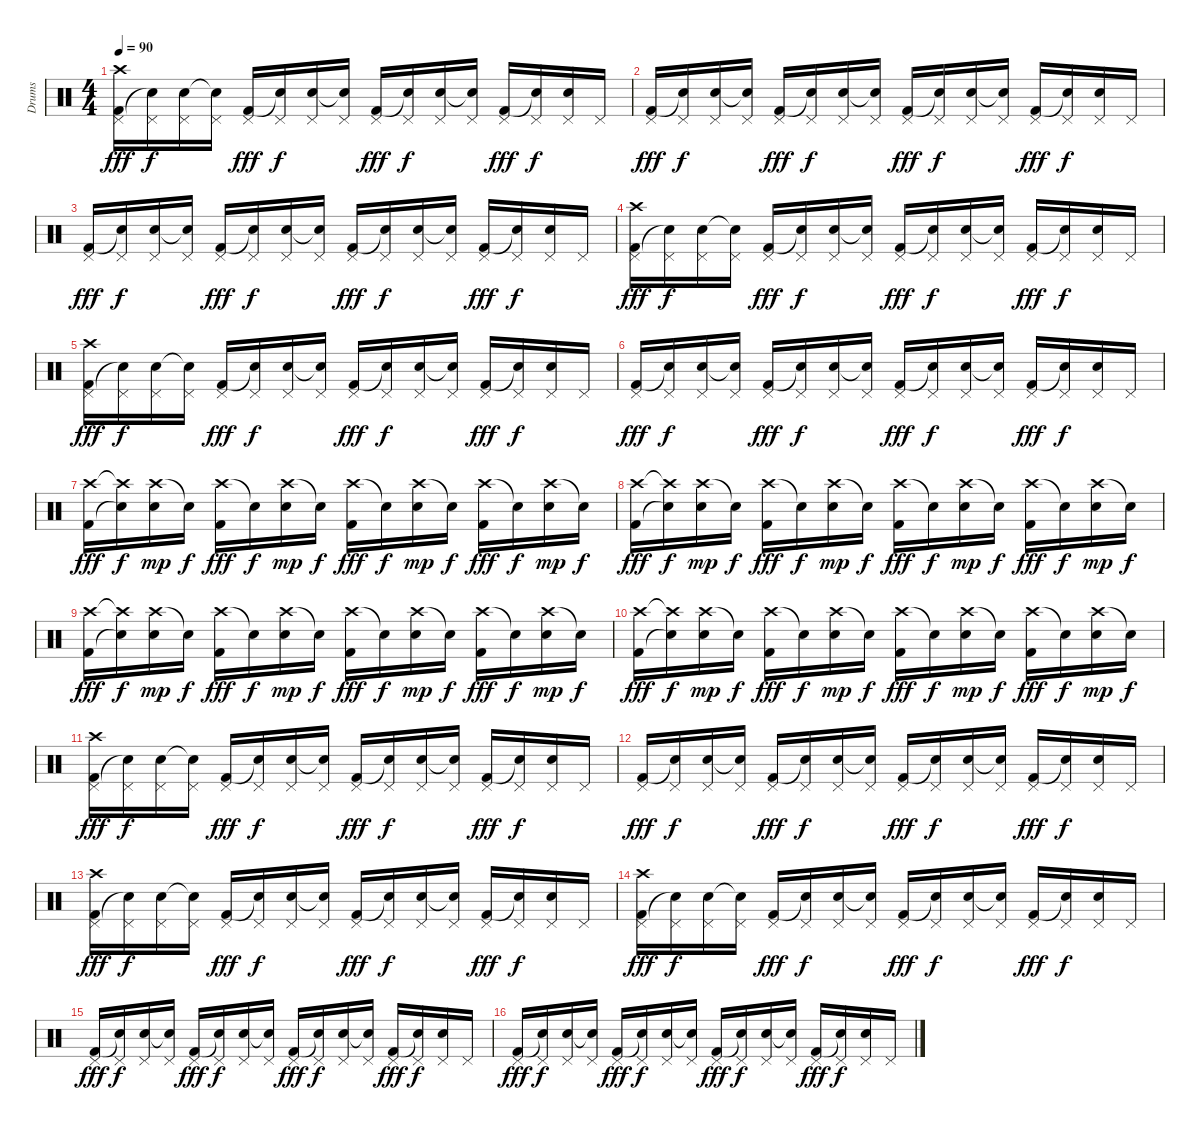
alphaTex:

\track ("Drums" "Drums") {instrument percussion}
\staff {score}
\articulation defaults
\ts (4 4)
\tempo 90
\clef neutral
\ks c
("Crash high (hit)" "Pedal Hi-Hat (hit)" "Kick (hit) 2").16{dy fff} ("Pedal Hi-Hat (hit)" "Snare (hit)"{t}).16{dy f} ("Pedal Hi-Hat (hit)" "Electric Snare (hit)").16 ("Pedal Hi-Hat (hit)" "Snare (hit)"{t}).16 ("Pedal Hi-Hat (hit)" "Kick (hit) 2").16{dy fff} ("Pedal Hi-Hat (hit)" "Snare (hit)"{t}).16{dy f} ("Pedal Hi-Hat (hit)" "Electric Snare (hit)").16 ("Pedal Hi-Hat (hit)" "Snare (hit)"{t}).16 ("Pedal Hi-Hat (hit)" "Kick (hit) 2").16{dy fff} ("Pedal Hi-Hat (hit)" "Snare (hit)"{t}).16{dy f} ("Pedal Hi-Hat (hit)" "Electric Snare (hit)").16 ("Pedal Hi-Hat (hit)" "Snare (hit)"{t}).16 ("Pedal Hi-Hat (hit)" "Kick (hit) 2").16{dy fff} ("Pedal Hi-Hat (hit)" "Snare (hit)"{t}).16{dy f} ("Pedal Hi-Hat (hit)" "Electric Snare (hit)").16 "Pedal Hi-Hat (hit)".16 |
("Pedal Hi-Hat (hit)" "Kick (hit) 2").16{dy fff} ("Pedal Hi-Hat (hit)" "Snare (hit)"{t}).16{dy f} ("Pedal Hi-Hat (hit)" "Electric Snare (hit)").16 ("Pedal Hi-Hat (hit)" "Snare (hit)"{t}).16 ("Pedal Hi-Hat (hit)" "Kick (hit) 2").16{dy fff} ("Pedal Hi-Hat (hit)" "Snare (hit)"{t}).16{dy f} ("Pedal Hi-Hat (hit)" "Electric Snare (hit)").16 ("Pedal Hi-Hat (hit)" "Snare (hit)"{t}).16 ("Pedal Hi-Hat (hit)" "Kick (hit) 2").16{dy fff} ("Pedal Hi-Hat (hit)" "Snare (hit)"{t}).16{dy f} ("Pedal Hi-Hat (hit)" "Electric Snare (hit)").16 ("Pedal Hi-Hat (hit)" "Snare (hit)"{t}).16 ("Pedal Hi-Hat (hit)" "Kick (hit) 2").16{dy fff} ("Pedal Hi-Hat (hit)" "Snare (hit)"{t}).16{dy f} ("Pedal Hi-Hat (hit)" "Electric Snare (hit)").16 "Pedal Hi-Hat (hit)".16 |
("Pedal Hi-Hat (hit)" "Kick (hit) 2").16{dy fff} ("Pedal Hi-Hat (hit)" "Snare (hit)"{t}).16{dy f} ("Pedal Hi-Hat (hit)" "Electric Snare (hit)").16 ("Pedal Hi-Hat (hit)" "Snare (hit)"{t}).16 ("Pedal Hi-Hat (hit)" "Kick (hit) 2").16{dy fff} ("Pedal Hi-Hat (hit)" "Snare (hit)"{t}).16{dy f} ("Pedal Hi-Hat (hit)" "Electric Snare (hit)").16 ("Pedal Hi-Hat (hit)" "Snare (hit)"{t}).16 ("Pedal Hi-Hat (hit)" "Kick (hit) 2").16{dy fff} ("Pedal Hi-Hat (hit)" "Snare (hit)"{t}).16{dy f} ("Pedal Hi-Hat (hit)" "Electric Snare (hit)").16 ("Pedal Hi-Hat (hit)" "Snare (hit)"{t}).16 ("Pedal Hi-Hat (hit)" "Kick (hit) 2").16{dy fff} ("Pedal Hi-Hat (hit)" "Snare (hit)"{t}).16{dy f} ("Pedal Hi-Hat (hit)" "Electric Snare (hit)").16 "Pedal Hi-Hat (hit)".16 |
("Crash high (hit)" "Pedal Hi-Hat (hit)" "Kick (hit) 2").16{dy fff} ("Pedal Hi-Hat (hit)" "Snare (hit)"{t}).16{dy f} ("Pedal Hi-Hat (hit)" "Electric Snare (hit)").16 ("Pedal Hi-Hat (hit)" "Snare (hit)"{t}).16 ("Pedal Hi-Hat (hit)" "Kick (hit) 2").16{dy fff} ("Pedal Hi-Hat (hit)" "Snare (hit)"{t}).16{dy f} ("Pedal Hi-Hat (hit)" "Electric Snare (hit)").16 ("Pedal Hi-Hat (hit)" "Snare (hit)"{t}).16 ("Pedal Hi-Hat (hit)" "Kick (hit) 2").16{dy fff} ("Pedal Hi-Hat (hit)" "Snare (hit)"{t}).16{dy f} ("Pedal Hi-Hat (hit)" "Electric Snare (hit)").16 ("Pedal Hi-Hat (hit)" "Snare (hit)"{t}).16 ("Pedal Hi-Hat (hit)" "Kick (hit) 2").16{dy fff} ("Pedal Hi-Hat (hit)" "Snare (hit)"{t}).16{dy f} ("Pedal Hi-Hat (hit)" "Electric Snare (hit)").16 "Pedal Hi-Hat (hit)".16 |
("Crash high (hit)" "Pedal Hi-Hat (hit)" "Kick (hit) 2").16{dy fff} ("Pedal Hi-Hat (hit)" "Snare (hit)"{t}).16{dy f} ("Pedal Hi-Hat (hit)" "Electric Snare (hit)").16 ("Pedal Hi-Hat (hit)" "Snare (hit)"{t}).16 ("Pedal Hi-Hat (hit)" "Kick (hit) 2").16{dy fff} ("Pedal Hi-Hat (hit)" "Snare (hit)"{t}).16{dy f} ("Pedal Hi-Hat (hit)" "Electric Snare (hit)").16 ("Pedal Hi-Hat (hit)" "Snare (hit)"{t}).16 ("Pedal Hi-Hat (hit)" "Kick (hit) 2").16{dy fff} ("Pedal Hi-Hat (hit)" "Snare (hit)"{t}).16{dy f} ("Pedal Hi-Hat (hit)" "Electric Snare (hit)").16 ("Pedal Hi-Hat (hit)" "Snare (hit)"{t}).16 ("Pedal Hi-Hat (hit)" "Kick (hit) 2").16{dy fff} ("Pedal Hi-Hat (hit)" "Snare (hit)"{t}).16{dy f} ("Pedal Hi-Hat (hit)" "Electric Snare (hit)").16 "Pedal Hi-Hat (hit)".16 |
("Pedal Hi-Hat (hit)" "Kick (hit) 2").16{dy fff} ("Pedal Hi-Hat (hit)" "Snare (hit)"{t}).16{dy f} ("Pedal Hi-Hat (hit)" "Electric Snare (hit)").16 ("Pedal Hi-Hat (hit)" "Snare (hit)"{t}).16 ("Pedal Hi-Hat (hit)" "Kick (hit) 2").16{dy fff} ("Pedal Hi-Hat (hit)" "Snare (hit)"{t}).16{dy f} ("Pedal Hi-Hat (hit)" "Electric Snare (hit)").16 ("Pedal Hi-Hat (hit)" "Snare (hit)"{t}).16 ("Pedal Hi-Hat (hit)" "Kick (hit) 2").16{dy fff} ("Pedal Hi-Hat (hit)" "Snare (hit)"{t}).16{dy f} ("Pedal Hi-Hat (hit)" "Electric Snare (hit)").16 ("Pedal Hi-Hat (hit)" "Snare (hit)"{t}).16 ("Pedal Hi-Hat (hit)" "Kick (hit) 2").16{dy fff} ("Pedal Hi-Hat (hit)" "Snare (hit)"{t}).16{dy f} ("Pedal Hi-Hat (hit)" "Electric Snare (hit)").16 "Pedal Hi-Hat (hit)".16 |
("Crash high (hit)" "Kick (hit) 2").16{dy fff} ("Crash high (hit)"{t} "Snare (hit)"{t}).16{dy f} ("Crash high (hit)" "Electric Snare (hit)").16{dy mp} "Snare (hit)"{t}.16{dy f} ("Crash high (hit)" "Kick (hit) 2").16{dy fff} "Snare (hit)"{t}.16{dy f} ("Crash high (hit)" "Electric Snare (hit)").16{dy mp} "Snare (hit)"{t}.16{dy f} ("Crash high (hit)" "Kick (hit) 2").16{dy fff} "Snare (hit)"{t}.16{dy f} ("Crash high (hit)" "Electric Snare (hit)").16{dy mp} "Snare (hit)"{t}.16{dy f} ("Crash high (hit)" "Kick (hit) 2").16{dy fff} "Snare (hit)"{t}.16{dy f} ("Crash high (hit)" "Electric Snare (hit)").16{dy mp} "Snare (hit)"{t}.16{dy f} |
("Crash high (hit)" "Kick (hit) 2").16{dy fff} ("Crash high (hit)"{t} "Snare (hit)"{t}).16{dy f} ("Crash high (hit)" "Electric Snare (hit)").16{dy mp} "Snare (hit)"{t}.16{dy f} ("Crash high (hit)" "Kick (hit) 2").16{dy fff} "Snare (hit)"{t}.16{dy f} ("Crash high (hit)" "Electric Snare (hit)").16{dy mp} "Snare (hit)"{t}.16{dy f} ("Crash high (hit)" "Kick (hit) 2").16{dy fff} "Snare (hit)"{t}.16{dy f} ("Crash high (hit)" "Electric Snare (hit)").16{dy mp} "Snare (hit)"{t}.16{dy f} ("Crash high (hit)" "Kick (hit) 2").16{dy fff} "Snare (hit)"{t}.16{dy f} ("Crash high (hit)" "Electric Snare (hit)").16{dy mp} "Snare (hit)"{t}.16{dy f} |
("Crash high (hit)" "Kick (hit) 2").16{dy fff} ("Crash high (hit)"{t} "Snare (hit)"{t}).16{dy f} ("Crash high (hit)" "Electric Snare (hit)").16{dy mp} "Snare (hit)"{t}.16{dy f} ("Crash high (hit)" "Kick (hit) 2").16{dy fff} "Snare (hit)"{t}.16{dy f} ("Crash high (hit)" "Electric Snare (hit)").16{dy mp} "Snare (hit)"{t}.16{dy f} ("Crash high (hit)" "Kick (hit) 2").16{dy fff} "Snare (hit)"{t}.16{dy f} ("Crash high (hit)" "Electric Snare (hit)").16{dy mp} "Snare (hit)"{t}.16{dy f} ("Crash high (hit)" "Kick (hit) 2").16{dy fff} "Snare (hit)"{t}.16{dy f} ("Crash high (hit)" "Electric Snare (hit)").16{dy mp} "Snare (hit)"{t}.16{dy f} |
("Crash high (hit)" "Kick (hit) 2").16{dy fff} ("Crash high (hit)"{t} "Snare (hit)"{t}).16{dy f} ("Crash high (hit)" "Electric Snare (hit)").16{dy mp} "Snare (hit)"{t}.16{dy f} ("Crash high (hit)" "Kick (hit) 2").16{dy fff} "Snare (hit)"{t}.16{dy f} ("Crash high (hit)" "Electric Snare (hit)").16{dy mp} "Snare (hit)"{t}.16{dy f} ("Crash high (hit)" "Kick (hit) 2").16{dy fff} "Snare (hit)"{t}.16{dy f} ("Crash high (hit)" "Electric Snare (hit)").16{dy mp} "Snare (hit)"{t}.16{dy f} ("Crash high (hit)" "Kick (hit) 2").16{dy fff} "Snare (hit)"{t}.16{dy f} ("Crash high (hit)" "Electric Snare (hit)").16{dy mp} "Snare (hit)"{t}.16{dy f} |
("Crash high (hit)" "Pedal Hi-Hat (hit)" "Kick (hit) 2").16{dy fff} ("Pedal Hi-Hat (hit)" "Snare (hit)"{t}).16{dy f} ("Pedal Hi-Hat (hit)" "Electric Snare (hit)").16 ("Pedal Hi-Hat (hit)" "Snare (hit)"{t}).16 ("Pedal Hi-Hat (hit)" "Kick (hit) 2").16{dy fff} ("Pedal Hi-Hat (hit)" "Snare (hit)"{t}).16{dy f} ("Pedal Hi-Hat (hit)" "Electric Snare (hit)").16 ("Pedal Hi-Hat (hit)" "Snare (hit)"{t}).16 ("Pedal Hi-Hat (hit)" "Kick (hit) 2").16{dy fff} ("Pedal Hi-Hat (hit)" "Snare (hit)"{t}).16{dy f} ("Pedal Hi-Hat (hit)" "Electric Snare (hit)").16 ("Pedal Hi-Hat (hit)" "Snare (hit)"{t}).16 ("Pedal Hi-Hat (hit)" "Kick (hit) 2").16{dy fff} ("Pedal Hi-Hat (hit)" "Snare (hit)"{t}).16{dy f} ("Pedal Hi-Hat (hit)" "Electric Snare (hit)").16 "Pedal Hi-Hat (hit)".16 |
("Pedal Hi-Hat (hit)" "Kick (hit) 2").16{dy fff} ("Pedal Hi-Hat (hit)" "Snare (hit)"{t}).16{dy f} ("Pedal Hi-Hat (hit)" "Electric Snare (hit)").16 ("Pedal Hi-Hat (hit)" "Snare (hit)"{t}).16 ("Pedal Hi-Hat (hit)" "Kick (hit) 2").16{dy fff} ("Pedal Hi-Hat (hit)" "Snare (hit)"{t}).16{dy f} ("Pedal Hi-Hat (hit)" "Electric Snare (hit)").16 ("Pedal Hi-Hat (hit)" "Snare (hit)"{t}).16 ("Pedal Hi-Hat (hit)" "Kick (hit) 2").16{dy fff} ("Pedal Hi-Hat (hit)" "Snare (hit)"{t}).16{dy f} ("Pedal Hi-Hat (hit)" "Electric Snare (hit)").16 ("Pedal Hi-Hat (hit)" "Snare (hit)"{t}).16 ("Pedal Hi-Hat (hit)" "Kick (hit) 2").16{dy fff} ("Pedal Hi-Hat (hit)" "Snare (hit)"{t}).16{dy f} ("Pedal Hi-Hat (hit)" "Electric Snare (hit)").16 "Pedal Hi-Hat (hit)".16 |
("Crash high (hit)" "Pedal Hi-Hat (hit)" "Kick (hit) 2").16{dy fff} ("Pedal Hi-Hat (hit)" "Snare (hit)"{t}).16{dy f} ("Pedal Hi-Hat (hit)" "Electric Snare (hit)").16 ("Pedal Hi-Hat (hit)" "Snare (hit)"{t}).16 ("Pedal Hi-Hat (hit)" "Kick (hit) 2").16{dy fff} ("Pedal Hi-Hat (hit)" "Snare (hit)"{t}).16{dy f} ("Pedal Hi-Hat (hit)" "Electric Snare (hit)").16 ("Pedal Hi-Hat (hit)" "Snare (hit)"{t}).16 ("Pedal Hi-Hat (hit)" "Kick (hit) 2").16{dy fff} ("Pedal Hi-Hat (hit)" "Snare (hit)"{t}).16{dy f} ("Pedal Hi-Hat (hit)" "Electric Snare (hit)").16 ("Pedal Hi-Hat (hit)" "Snare (hit)"{t}).16 ("Pedal Hi-Hat (hit)" "Kick (hit) 2").16{dy fff} ("Pedal Hi-Hat (hit)" "Snare (hit)"{t}).16{dy f} ("Pedal Hi-Hat (hit)" "Electric Snare (hit)").16 "Pedal Hi-Hat (hit)".16 |
("Crash high (hit)" "Pedal Hi-Hat (hit)" "Kick (hit) 2").16{dy fff} ("Pedal Hi-Hat (hit)" "Snare (hit)"{t}).16{dy f} ("Pedal Hi-Hat (hit)" "Electric Snare (hit)").16 ("Pedal Hi-Hat (hit)" "Snare (hit)"{t}).16 ("Pedal Hi-Hat (hit)" "Kick (hit) 2").16{dy fff} ("Pedal Hi-Hat (hit)" "Snare (hit)"{t}).16{dy f} ("Pedal Hi-Hat (hit)" "Electric Snare (hit)").16 ("Pedal Hi-Hat (hit)" "Snare (hit)"{t}).16 ("Pedal Hi-Hat (hit)" "Kick (hit) 2").16{dy fff} ("Pedal Hi-Hat (hit)" "Snare (hit)"{t}).16{dy f} ("Pedal Hi-Hat (hit)" "Electric Snare (hit)").16 ("Pedal Hi-Hat (hit)" "Snare (hit)"{t}).16 ("Pedal Hi-Hat (hit)" "Kick (hit) 2").16{dy fff} ("Pedal Hi-Hat (hit)" "Snare (hit)"{t}).16{dy f} ("Pedal Hi-Hat (hit)" "Electric Snare (hit)").16 "Pedal Hi-Hat (hit)".16 |
("Pedal Hi-Hat (hit)" "Kick (hit) 2").16{dy fff} ("Pedal Hi-Hat (hit)" "Snare (hit)"{t}).16{dy f} ("Pedal Hi-Hat (hit)" "Electric Snare (hit)").16 ("Pedal Hi-Hat (hit)" "Snare (hit)"{t}).16 ("Pedal Hi-Hat (hit)" "Kick (hit) 2").16{dy fff} ("Pedal Hi-Hat (hit)" "Snare (hit)"{t}).16{dy f} ("Pedal Hi-Hat (hit)" "Electric Snare (hit)").16 ("Pedal Hi-Hat (hit)" "Snare (hit)"{t}).16 ("Pedal Hi-Hat (hit)" "Kick (hit) 2").16{dy fff} ("Pedal Hi-Hat (hit)" "Snare (hit)"{t}).16{dy f} ("Pedal Hi-Hat (hit)" "Electric Snare (hit)").16 ("Pedal Hi-Hat (hit)" "Snare (hit)"{t}).16 ("Pedal Hi-Hat (hit)" "Kick (hit) 2").16{dy fff} ("Pedal Hi-Hat (hit)" "Snare (hit)"{t}).16{dy f} ("Pedal Hi-Hat (hit)" "Electric Snare (hit)").16 "Pedal Hi-Hat (hit)".16 |
("Pedal Hi-Hat (hit)" "Kick (hit) 2").16{dy fff} ("Pedal Hi-Hat (hit)" "Snare (hit)"{t}).16{dy f} ("Pedal Hi-Hat (hit)" "Electric Snare (hit)").16 ("Pedal Hi-Hat (hit)" "Snare (hit)"{t}).16 ("Pedal Hi-Hat (hit)" "Kick (hit) 2").16{dy fff} ("Pedal Hi-Hat (hit)" "Snare (hit)"{t}).16{dy f} ("Pedal Hi-Hat (hit)" "Electric Snare (hit)").16 ("Pedal Hi-Hat (hit)" "Snare (hit)"{t}).16 ("Pedal Hi-Hat (hit)" "Kick (hit) 2").16{dy fff} ("Pedal Hi-Hat (hit)" "Snare (hit)"{t}).16{dy f} ("Pedal Hi-Hat (hit)" "Electric Snare (hit)").16 ("Pedal Hi-Hat (hit)" "Snare (hit)"{t}).16 ("Pedal Hi-Hat (hit)" "Kick (hit) 2").16{dy fff} ("Pedal Hi-Hat (hit)" "Snare (hit)"{t}).16{dy f} ("Pedal Hi-Hat (hit)" "Electric Snare (hit)").16 "Pedal Hi-Hat (hit)".16
